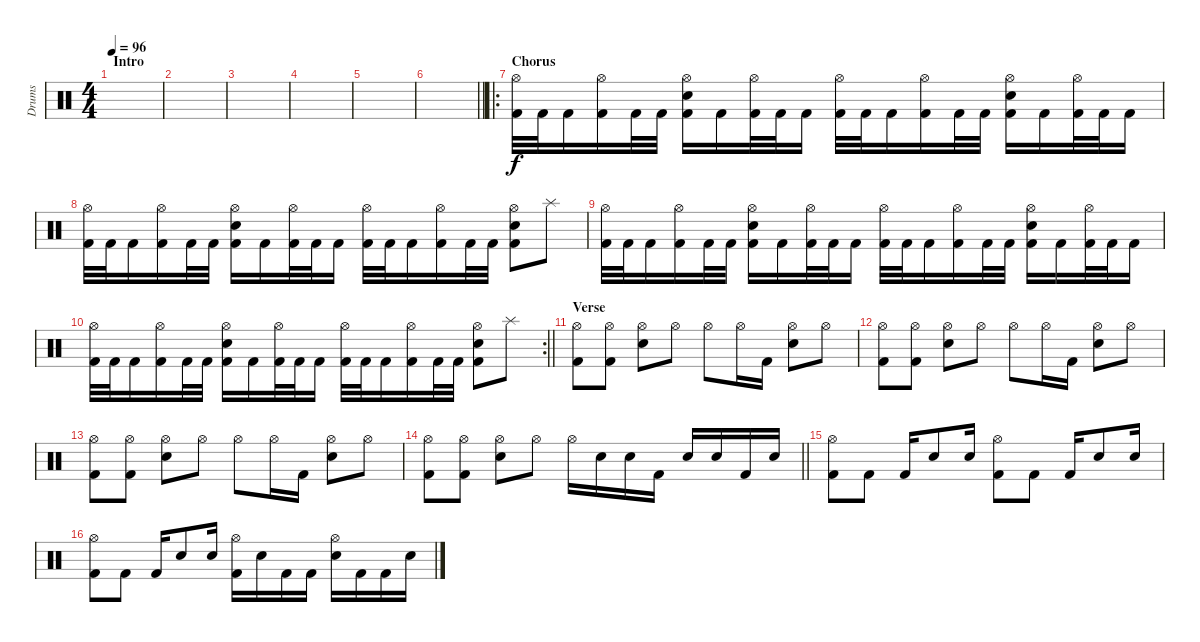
\track ("Drums" "Drums") {instrument percussion}
\staff {score}
\articulation defaults
\ts (4 4)
\section ("" "Intro")
\tempo 96
\clef neutral
\ks c
|
|
|
|
|
\barLineRight lightlight
|
\ro
\section ("" "Chorus")
("Hi-Hat (open)" "Kick (hit) 2").32 "Kick (hit) 2".32 "Kick (hit) 2".16 ("Hi-Hat (open)" "Kick (hit) 2").16 "Kick (hit) 2".32 "Kick (hit) 2".32 ("Hi-Hat (open)" "Snare (hit) 2" "Kick (hit) 2").16 "Kick (hit) 2".16 ("Hi-Hat (open)" "Kick (hit) 2").32 "Kick (hit) 2".32 "Kick (hit) 2".16 ("Hi-Hat (open)" "Kick (hit) 2").32 "Kick (hit) 2".32 "Kick (hit) 2".16 ("Hi-Hat (open)" "Kick (hit) 2").16 "Kick (hit) 2".32 "Kick (hit) 2".32 ("Hi-Hat (open)" "Snare (hit) 2" "Kick (hit) 2").16 "Kick (hit) 2".16 ("Hi-Hat (open)" "Kick (hit) 2").32 "Kick (hit) 2".32 "Kick (hit) 2".16 |
("Hi-Hat (open)" "Kick (hit) 2").32 "Kick (hit) 2".32 "Kick (hit) 2".16 ("Hi-Hat (open)" "Kick (hit) 2").16 "Kick (hit) 2".32 "Kick (hit) 2".32 ("Hi-Hat (open)" "Snare (hit) 2" "Kick (hit) 2").16 "Kick (hit) 2".16 ("Hi-Hat (open)" "Kick (hit) 2").32 "Kick (hit) 2".32 "Kick (hit) 2".16 ("Hi-Hat (open)" "Kick (hit) 2").32 "Kick (hit) 2".32 "Kick (hit) 2".16 ("Hi-Hat (open)" "Kick (hit) 2").16 "Kick (hit) 2".32 "Kick (hit) 2".32 ("Hi-Hat (open)" "Snare (hit) 2" "Kick (hit) 2").8 "Splash (hit)".8 |
("Hi-Hat (open)" "Kick (hit) 2").32 "Kick (hit) 2".32 "Kick (hit) 2".16 ("Hi-Hat (open)" "Kick (hit) 2").16 "Kick (hit) 2".32 "Kick (hit) 2".32 ("Hi-Hat (open)" "Snare (hit) 2" "Kick (hit) 2").16 "Kick (hit) 2".16 ("Hi-Hat (open)" "Kick (hit) 2").32 "Kick (hit) 2".32 "Kick (hit) 2".16 ("Hi-Hat (open)" "Kick (hit) 2").32 "Kick (hit) 2".32 "Kick (hit) 2".16 ("Hi-Hat (open)" "Kick (hit) 2").16 "Kick (hit) 2".32 "Kick (hit) 2".32 ("Hi-Hat (open)" "Snare (hit) 2" "Kick (hit) 2").16 "Kick (hit) 2".16 ("Hi-Hat (open)" "Kick (hit) 2").32 "Kick (hit) 2".32 "Kick (hit) 2".16 |
\rc 2
\barLineRight lightlight
("Hi-Hat (open)" "Kick (hit) 2").32 "Kick (hit) 2".32 "Kick (hit) 2".16 ("Hi-Hat (open)" "Kick (hit) 2").16 "Kick (hit) 2".32 "Kick (hit) 2".32 ("Hi-Hat (open)" "Snare (hit) 2" "Kick (hit) 2").16 "Kick (hit) 2".16 ("Hi-Hat (open)" "Kick (hit) 2").32 "Kick (hit) 2".32 "Kick (hit) 2".16 ("Hi-Hat (open)" "Kick (hit) 2").32 "Kick (hit) 2".32 "Kick (hit) 2".16 ("Hi-Hat (open)" "Kick (hit) 2").16 "Kick (hit) 2".32 "Kick (hit) 2".32 ("Hi-Hat (open)" "Snare (hit) 2" "Kick (hit) 2").8 "Splash (hit)".8 |
\section ("" "Verse")
("Hi-Hat (open)" "Kick (hit) 2").8 ("Hi-Hat (open)" "Kick (hit) 2").8 ("Hi-Hat (open)" "Snare (hit) 2").8 "Hi-Hat (open)".8 "Hi-Hat (open)".8 "Hi-Hat (open)".16 "Kick (hit) 2".16 ("Hi-Hat (open)" "Snare (hit) 2").8 "Hi-Hat (open)".8 |
("Hi-Hat (open)" "Kick (hit) 2").8 ("Hi-Hat (open)" "Kick (hit) 2").8 ("Hi-Hat (open)" "Snare (hit) 2").8 "Hi-Hat (open)".8 "Hi-Hat (open)".8 "Hi-Hat (open)".16 "Kick (hit) 2".16 ("Hi-Hat (open)" "Snare (hit) 2").8 "Hi-Hat (open)".8 |
("Hi-Hat (open)" "Kick (hit) 2").8 ("Hi-Hat (open)" "Kick (hit) 2").8 ("Hi-Hat (open)" "Snare (hit) 2").8 "Hi-Hat (open)".8 "Hi-Hat (open)".8 "Hi-Hat (open)".16 "Kick (hit) 2".16 ("Hi-Hat (open)" "Snare (hit) 2").8 "Hi-Hat (open)".8 |
\barLineRight lightlight
("Hi-Hat (open)" "Kick (hit) 2").8 ("Hi-Hat (open)" "Kick (hit) 2").8 ("Hi-Hat (open)" "Snare (hit) 2").8 "Hi-Hat (open)".8 "Hi-Hat (open)".16 "Electric Snare (hit)".16 "Snare (hit) 2".16 "Kick (hit) 2".16 "Electric Snare (hit)".16 "Snare (hit) 2".16 "Kick (hit) 2".16 "Snare (hit) 2".16 |
\section ("" "")
("Hi-Hat (open)" "Kick (hit) 2").8 "Kick (hit) 2".8 "Kick (hit) 2".16 "Electric Snare (hit)".8 "Snare (hit) 2".16 ("Hi-Hat (open)" "Kick (hit) 2").8 "Kick (hit) 2".8 "Kick (hit) 2".16 "Electric Snare (hit)".8 "Snare (hit) 2".16 |
("Hi-Hat (open)" "Kick (hit) 2").8 "Kick (hit) 2".8 "Kick (hit) 2".16 "Electric Snare (hit)".8 "Snare (hit) 2".16 ("Hi-Hat (open)" "Kick (hit) 2").16 "Electric Snare (hit)".16 "Kick (hit) 2".16 "Kick (hit) 2".16 ("Hi-Hat (open)" "Snare (hit) 2").16 "Kick (hit) 2".16 "Kick (hit) 2".16 "Snare (hit) 2".16
